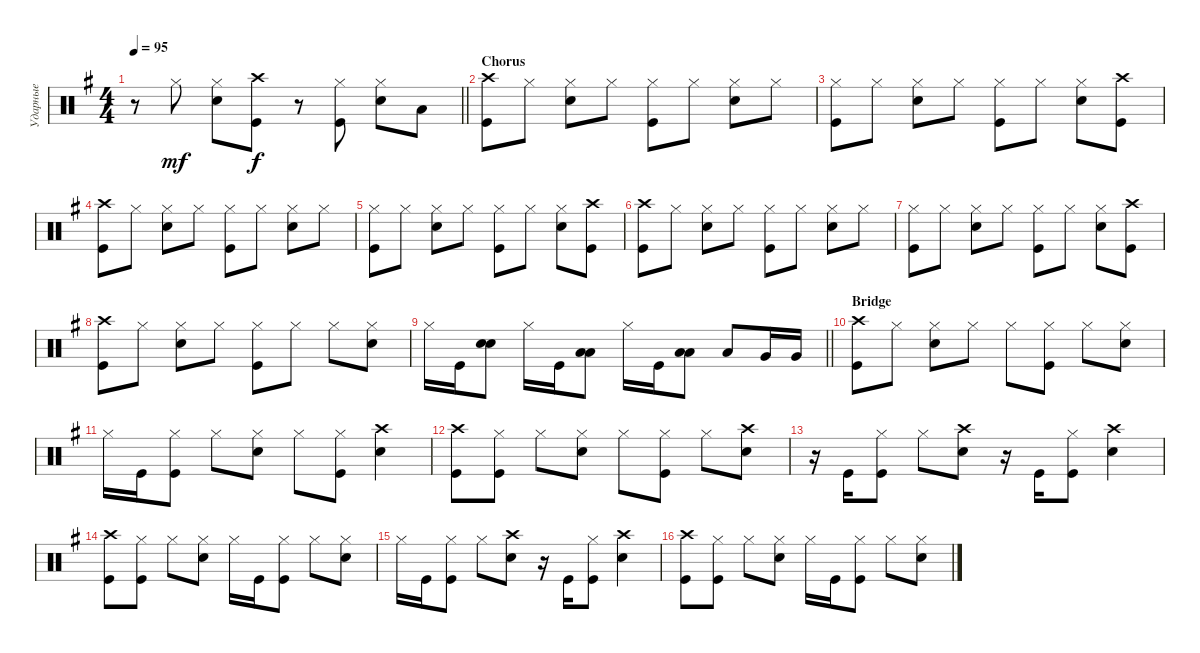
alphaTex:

\track ("Ударные" "Ударные") {instrument percussion}
\staff {score}
\articulation defaults
\ts (4 4)
\tempo 95
\clef neutral
\barLineRight lightlight
\ks eminor
r.8{dy f} "Hi-Hat (closed)".8{dy mf} ("Snare (hit) 2" "Hi-Hat (closed)").8 ("Kick (hit)" "Crash high (hit)").8{dy f} r.8 ("Kick (hit)" "Hi-Hat (closed)").8 ("Snare (hit) 2" "Hi-Hat (closed)").8 "Low Tom (hit)".8 |
\section ("" "Chorus")
("Kick (hit)" "Crash high (hit)").8 "Hi-Hat (closed)".8 ("Snare (hit) 2" "Hi-Hat (closed)").8 "Hi-Hat (closed)".8 ("Kick (hit)" "Hi-Hat (closed)").8 "Hi-Hat (closed)".8 ("Snare (hit) 2" "Hi-Hat (closed)").8 "Hi-Hat (closed)".8 |
("Kick (hit)" "Hi-Hat (closed)").8 "Hi-Hat (closed)".8 ("Snare (hit) 2" "Hi-Hat (closed)").8 "Hi-Hat (closed)".8 ("Kick (hit)" "Hi-Hat (closed)").8 "Hi-Hat (closed)".8 ("Snare (hit) 2" "Hi-Hat (closed)").8 ("Crash high (hit)" "Kick (hit)").8 |
("Kick (hit)" "Crash high (hit)").8 "Hi-Hat (closed)".8 ("Snare (hit) 2" "Hi-Hat (closed)").8 "Hi-Hat (closed)".8 ("Kick (hit)" "Hi-Hat (closed)").8 "Hi-Hat (closed)".8 ("Snare (hit) 2" "Hi-Hat (closed)").8 "Hi-Hat (closed)".8 |
("Kick (hit)" "Hi-Hat (closed)").8 "Hi-Hat (closed)".8 ("Snare (hit) 2" "Hi-Hat (closed)").8 "Hi-Hat (closed)".8 ("Kick (hit)" "Hi-Hat (closed)").8 "Hi-Hat (closed)".8 ("Snare (hit) 2" "Hi-Hat (closed)").8 ("Crash high (hit)" "Kick (hit)").8 |
("Kick (hit)" "Crash high (hit)").8 "Hi-Hat (closed)".8 ("Snare (hit) 2" "Hi-Hat (closed)").8 "Hi-Hat (closed)".8 ("Kick (hit)" "Hi-Hat (closed)").8 "Hi-Hat (closed)".8 ("Snare (hit) 2" "Hi-Hat (closed)").8 "Hi-Hat (closed)".8 |
("Kick (hit)" "Hi-Hat (closed)").8 "Hi-Hat (closed)".8 ("Snare (hit) 2" "Hi-Hat (closed)").8 "Hi-Hat (closed)".8 ("Kick (hit)" "Hi-Hat (closed)").8 "Hi-Hat (closed)".8 ("Snare (hit) 2" "Hi-Hat (closed)").8 ("Crash high (hit)" "Kick (hit)").8 |
("Kick (hit)" "Crash high (hit)").8 "Hi-Hat (closed)".8 ("Snare (hit) 2" "Hi-Hat (closed)").8 "Hi-Hat (closed)".8 ("Kick (hit)" "Hi-Hat (closed)").8 "Hi-Hat (closed)".8 "Hi-Hat (closed)".8 ("Hi-Hat (closed)" "Snare (hit) 2").8 |
\barLineRight lightlight "Hi-Hat (closed)".16 "Kick (hit)".16
("Snare (hit) 2" "Snare (hit) 2").8{bd 120} "Hi-Hat (closed)".16 "Kick (hit)".16 ("Low Tom (hit)" "Low Tom (hit)").8{bd 120} "Hi-Hat (closed)".16 "Kick (hit)".16 ("Low Tom (hit)" "Low Tom (hit)").8{bd 120} "Low Tom (hit)".8 "Very Low Tom (hit)".16 "Very Low Tom (hit)".16 |
\section ("" "Bridge")
("Kick (hit)" "Crash high (hit)").8 "Hi-Hat (closed)".8 ("Hi-Hat (closed)" "Snare (hit) 2").8 "Hi-Hat (closed)".8 "Hi-Hat (closed)".8 ("Hi-Hat (closed)" "Kick (hit)").8 "Hi-Hat (closed)".8 ("Hi-Hat (closed)" "Snare (hit) 2").8 |
"Hi-Hat (closed)".16 "Kick (hit)".16 ("Kick (hit)" "Hi-Hat (closed)").8 "Hi-Hat (closed)".8 ("Hi-Hat (closed)" "Snare (hit) 2").8 "Hi-Hat (closed)".8 ("Hi-Hat (closed)" "Kick (hit)").8 ("Crash high (hit)" "Snare (hit) 2").4 |
("Kick (hit)" "Crash high (hit)").8 ("Hi-Hat (closed)" "Kick (hit)").8 "Hi-Hat (closed)".8 ("Hi-Hat (closed)" "Snare (hit) 2").8 "Hi-Hat (closed)".8 ("Hi-Hat (closed)" "Kick (hit)").8 "Hi-Hat (closed)".8 ("Crash high (hit)" "Snare (hit) 2").8 |
r.16 "Kick (hit)".16 ("Kick (hit)" "Hi-Hat (closed)").8 "Hi-Hat (closed)".8 ("Crash high (hit)" "Snare (hit) 2").8 r.16 "Kick (hit)".16 ("Hi-Hat (closed)" "Kick (hit)").8 ("Crash high (hit)" "Snare (hit) 2").4 |
("Kick (hit)" "Crash high (hit)").8 ("Hi-Hat (closed)" "Kick (hit)").8 "Hi-Hat (closed)".8 ("Hi-Hat (closed)" "Snare (hit) 2").8 "Hi-Hat (closed)".16 "Kick (hit)".16 ("Hi-Hat (closed)" "Kick (hit)").8 "Hi-Hat (closed)".8 ("Hi-Hat (closed)" "Snare (hit) 2").8 |
"Hi-Hat (closed)".16 "Kick (hit)".16 ("Kick (hit)" "Hi-Hat (closed)").8 "Hi-Hat (closed)".8 ("Crash high (hit)" "Snare (hit) 2").8 r.16 "Kick (hit)".16 ("Hi-Hat (closed)" "Kick (hit)").8 ("Crash high (hit)" "Snare (hit) 2").4 |
("Kick (hit)" "Crash high (hit)").8 ("Hi-Hat (closed)" "Kick (hit)").8 "Hi-Hat (closed)".8 ("Hi-Hat (closed)" "Snare (hit) 2").8 "Hi-Hat (closed)".16 "Kick (hit)".16 ("Hi-Hat (closed)" "Kick (hit)").8 "Hi-Hat (closed)".8 ("Hi-Hat (closed)" "Snare (hit) 2").8
